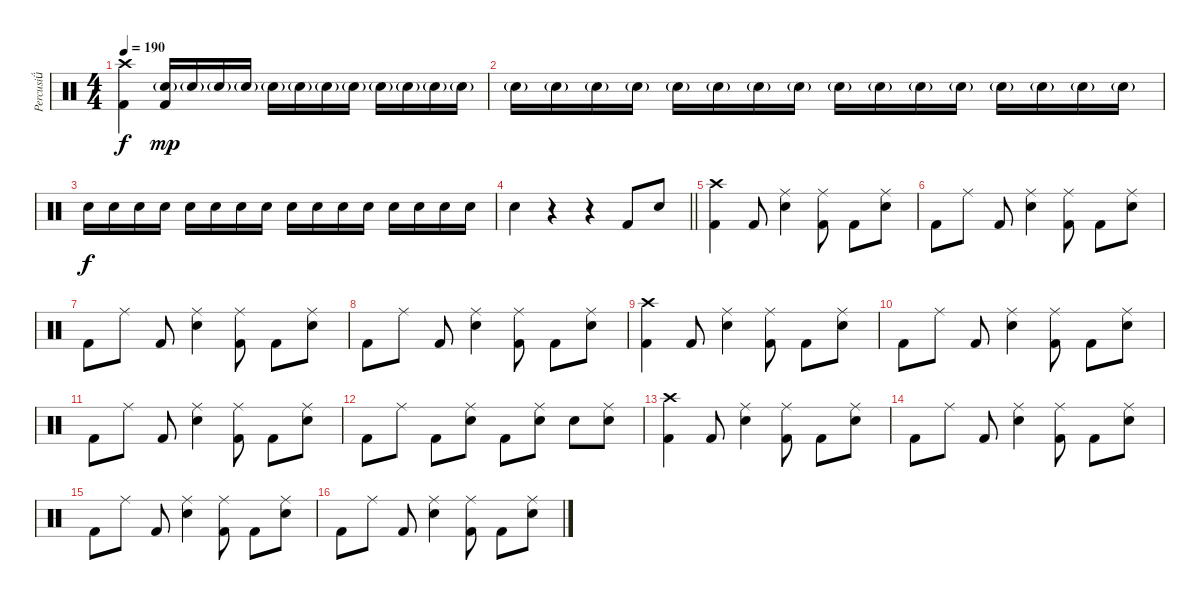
\track ("Percusi" "Percusi") {instrument percussion}
\staff {score}
\articulation defaults
\ts (4 4)
\tempo 190
\clef neutral
\ks c
("Crash high (hit)" "Kick (hit) 2").4{dy f} ("Electric Snare (hit)"{g} "Kick (hit) 2").16{dy mp} "Electric Snare (hit)"{g}.16 "Electric Snare (hit)"{g}.16 "Electric Snare (hit)"{g}.16 "Electric Snare (hit)"{g}.16 "Electric Snare (hit)"{g}.16 "Electric Snare (hit)"{g}.16 "Electric Snare (hit)"{g}.16 "Electric Snare (hit)"{g}.16 "Electric Snare (hit)"{g}.16 "Electric Snare (hit)"{g}.16 "Electric Snare (hit)"{g}.16 |
"Electric Snare (hit)"{g}.16 "Electric Snare (hit)"{g}.16 "Electric Snare (hit)"{g}.16 "Electric Snare (hit)"{g}.16 "Electric Snare (hit)"{g}.16 "Electric Snare (hit)"{g}.16 "Electric Snare (hit)"{g}.16 "Electric Snare (hit)"{g}.16 "Electric Snare (hit)"{g}.16 "Electric Snare (hit)"{g}.16 "Electric Snare (hit)"{g}.16 "Electric Snare (hit)"{g}.16 "Electric Snare (hit)"{g}.16 "Electric Snare (hit)"{g}.16 "Electric Snare (hit)"{g}.16 "Electric Snare (hit)"{g}.16 |
"Electric Snare (hit)".16{dy f} "Electric Snare (hit)".16 "Electric Snare (hit)".16 "Electric Snare (hit)".16 "Electric Snare (hit)".16 "Electric Snare (hit)".16 "Electric Snare (hit)".16 "Electric Snare (hit)".16 "Electric Snare (hit)".16 "Electric Snare (hit)".16 "Electric Snare (hit)".16 "Electric Snare (hit)".16 "Electric Snare (hit)".16 "Electric Snare (hit)".16 "Electric Snare (hit)".16 "Electric Snare (hit)".16 |
\barLineRight lightlight "Electric Snare (hit)".4
r.4 r.4 "Kick (hit) 2".8 "Electric Snare (hit)".8 |
("Crash high (hit)" "Kick (hit) 2").4 "Kick (hit) 2".8 ("Ride (middle)" "Electric Snare (hit)").4 ("Ride (middle)" "Kick (hit) 2").8 "Kick (hit) 2".8 ("Ride (middle)" "Electric Snare (hit)").8 |
"Kick (hit) 2".8 "Ride (middle)".8 "Kick (hit) 2".8 ("Ride (middle)" "Electric Snare (hit)").4 ("Ride (middle)" "Kick (hit) 2").8 "Kick (hit) 2".8 ("Ride (middle)" "Electric Snare (hit)").8 |
"Kick (hit) 2".8 "Ride (middle)".8 "Kick (hit) 2".8 ("Ride (middle)" "Electric Snare (hit)").4 ("Ride (middle)" "Kick (hit) 2").8 "Kick (hit) 2".8 ("Ride (middle)" "Electric Snare (hit)").8 |
"Kick (hit) 2".8 "Ride (middle)".8 "Kick (hit) 2".8 ("Ride (middle)" "Electric Snare (hit)").4 ("Ride (middle)" "Kick (hit) 2").8 "Kick (hit) 2".8 ("Ride (middle)" "Electric Snare (hit)").8 |
("Crash high (hit)" "Kick (hit) 2").4 "Kick (hit) 2".8 ("Ride (middle)" "Electric Snare (hit)").4 ("Ride (middle)" "Kick (hit) 2").8 "Kick (hit) 2".8 ("Ride (middle)" "Electric Snare (hit)").8 |
"Kick (hit) 2".8 "Ride (middle)".8 "Kick (hit) 2".8 ("Ride (middle)" "Electric Snare (hit)").4 ("Ride (middle)" "Kick (hit) 2").8 "Kick (hit) 2".8 ("Ride (middle)" "Electric Snare (hit)").8 |
"Kick (hit) 2".8 "Ride (middle)".8 "Kick (hit) 2".8 ("Ride (middle)" "Electric Snare (hit)").4 ("Ride (middle)" "Kick (hit) 2").8 "Kick (hit) 2".8 ("Ride (middle)" "Electric Snare (hit)").8 |
"Kick (hit) 2".8 "Ride (middle)".8 "Kick (hit) 2".8 ("Ride (middle)" "Electric Snare (hit)").8 "Kick (hit) 2".8 ("Ride (middle)" "Electric Snare (hit)").8 "Electric Snare (hit)".8 ("Ride (middle)" "Electric Snare (hit)").8 |
("Crash high (hit)" "Kick (hit) 2").4 "Kick (hit) 2".8 ("Ride (middle)" "Electric Snare (hit)").4 ("Ride (middle)" "Kick (hit) 2").8 "Kick (hit) 2".8 ("Ride (middle)" "Electric Snare (hit)").8 |
"Kick (hit) 2".8 "Ride (middle)".8 "Kick (hit) 2".8 ("Ride (middle)" "Electric Snare (hit)").4 ("Ride (middle)" "Kick (hit) 2").8 "Kick (hit) 2".8 ("Ride (middle)" "Electric Snare (hit)").8 |
"Kick (hit) 2".8 "Ride (middle)".8 "Kick (hit) 2".8 ("Ride (middle)" "Electric Snare (hit)").4 ("Ride (middle)" "Kick (hit) 2").8 "Kick (hit) 2".8 ("Ride (middle)" "Electric Snare (hit)").8 |
"Kick (hit) 2".8 "Ride (middle)".8 "Kick (hit) 2".8 ("Ride (middle)" "Electric Snare (hit)").4 ("Ride (middle)" "Kick (hit) 2").8 "Kick (hit) 2".8 ("Ride (middle)" "Electric Snare (hit)").8
